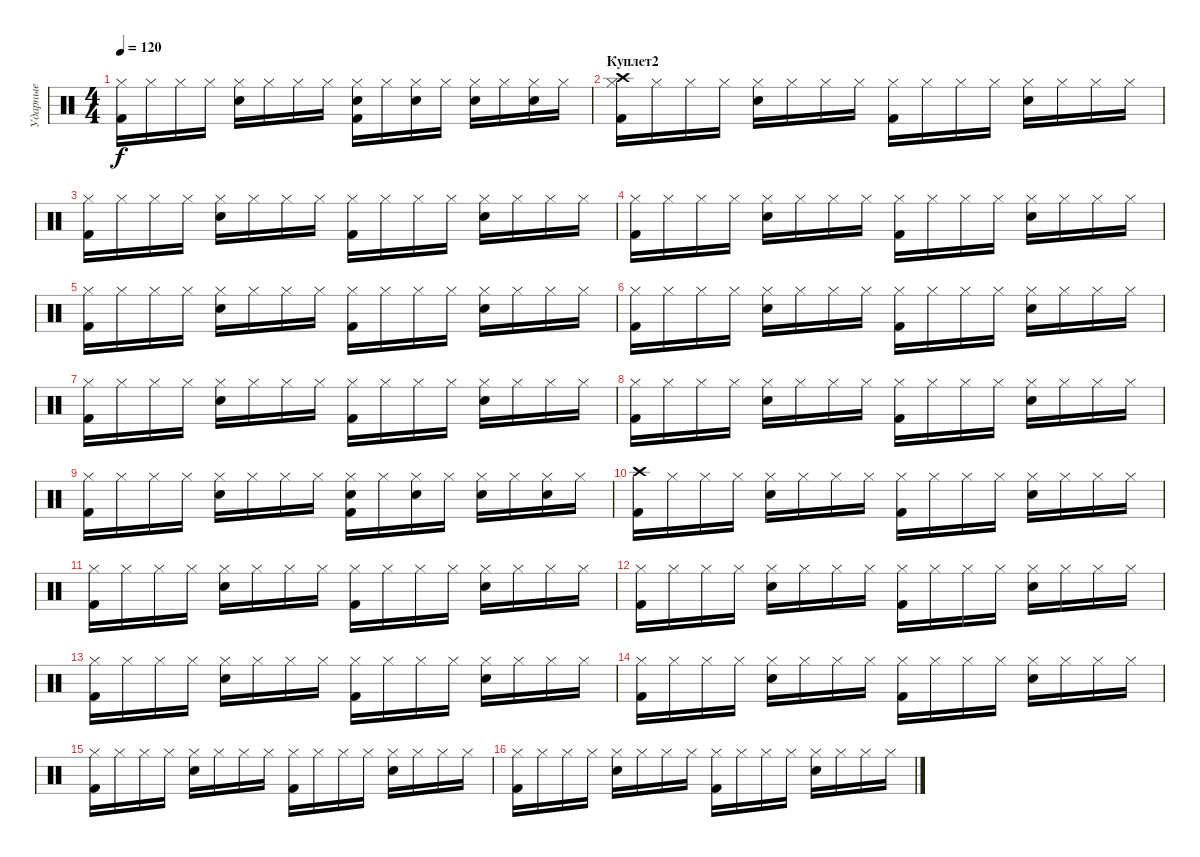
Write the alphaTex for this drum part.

\track ("Ударные" "Ударные") {instrument percussion}
\staff {score}
\articulation defaults
\ts (4 4)
\tempo 120
\clef neutral
\ks c
("Kick (hit) 2" "Hi-Hat (closed)").16{dy f} "Hi-Hat (closed)".16 "Hi-Hat (closed)".16 "Hi-Hat (closed)".16 ("Hi-Hat (closed)" "Snare (hit) 2").16 "Hi-Hat (closed)".16 "Hi-Hat (closed)".16 "Hi-Hat (closed)".16 ("Kick (hit) 2" "Hi-Hat (closed)" "Snare (hit) 2").16 "Hi-Hat (closed)".16 ("Hi-Hat (closed)" "Snare (hit) 2").16 "Hi-Hat (closed)".16 ("Hi-Hat (closed)" "Snare (hit) 2").16 "Hi-Hat (closed)".16 ("Hi-Hat (closed)" "Snare (hit) 2").16 "Hi-Hat (closed)".16 |
\section ("" "Куплет2")
("Kick (hit) 2" "Hi-Hat (closed)" "Crash high (hit)").16 "Hi-Hat (closed)".16 "Hi-Hat (closed)".16 "Hi-Hat (closed)".16 ("Hi-Hat (closed)" "Snare (hit) 2").16 "Hi-Hat (closed)".16 "Hi-Hat (closed)".16 "Hi-Hat (closed)".16 ("Kick (hit) 2" "Hi-Hat (closed)").16 "Hi-Hat (closed)".16 "Hi-Hat (closed)".16 "Hi-Hat (closed)".16 ("Hi-Hat (closed)" "Snare (hit) 2").16 "Hi-Hat (closed)".16 "Hi-Hat (closed)".16 "Hi-Hat (closed)".16 |
("Kick (hit) 2" "Hi-Hat (closed)").16 "Hi-Hat (closed)".16 "Hi-Hat (closed)".16 "Hi-Hat (closed)".16 ("Hi-Hat (closed)" "Snare (hit) 2").16 "Hi-Hat (closed)".16 "Hi-Hat (closed)".16 "Hi-Hat (closed)".16 ("Kick (hit) 2" "Hi-Hat (closed)").16 "Hi-Hat (closed)".16 "Hi-Hat (closed)".16 "Hi-Hat (closed)".16 ("Hi-Hat (closed)" "Snare (hit) 2").16 "Hi-Hat (closed)".16 "Hi-Hat (closed)".16 "Hi-Hat (closed)".16 |
("Kick (hit) 2" "Hi-Hat (closed)").16 "Hi-Hat (closed)".16 "Hi-Hat (closed)".16 "Hi-Hat (closed)".16 ("Hi-Hat (closed)" "Snare (hit) 2").16 "Hi-Hat (closed)".16 "Hi-Hat (closed)".16 "Hi-Hat (closed)".16 ("Kick (hit) 2" "Hi-Hat (closed)").16 "Hi-Hat (closed)".16 "Hi-Hat (closed)".16 "Hi-Hat (closed)".16 ("Hi-Hat (closed)" "Snare (hit) 2").16 "Hi-Hat (closed)".16 "Hi-Hat (closed)".16 "Hi-Hat (closed)".16 |
("Kick (hit) 2" "Hi-Hat (closed)").16 "Hi-Hat (closed)".16 "Hi-Hat (closed)".16 "Hi-Hat (closed)".16 ("Hi-Hat (closed)" "Snare (hit) 2").16 "Hi-Hat (closed)".16 "Hi-Hat (closed)".16 "Hi-Hat (closed)".16 ("Kick (hit) 2" "Hi-Hat (closed)").16 "Hi-Hat (closed)".16 "Hi-Hat (closed)".16 "Hi-Hat (closed)".16 ("Hi-Hat (closed)" "Snare (hit) 2").16 "Hi-Hat (closed)".16 "Hi-Hat (closed)".16 "Hi-Hat (closed)".16 |
("Kick (hit) 2" "Hi-Hat (closed)").16 "Hi-Hat (closed)".16 "Hi-Hat (closed)".16 "Hi-Hat (closed)".16 ("Hi-Hat (closed)" "Snare (hit) 2").16 "Hi-Hat (closed)".16 "Hi-Hat (closed)".16 "Hi-Hat (closed)".16 ("Kick (hit) 2" "Hi-Hat (closed)").16 "Hi-Hat (closed)".16 "Hi-Hat (closed)".16 "Hi-Hat (closed)".16 ("Hi-Hat (closed)" "Snare (hit) 2").16 "Hi-Hat (closed)".16 "Hi-Hat (closed)".16 "Hi-Hat (closed)".16 |
("Kick (hit) 2" "Hi-Hat (closed)").16 "Hi-Hat (closed)".16 "Hi-Hat (closed)".16 "Hi-Hat (closed)".16 ("Hi-Hat (closed)" "Snare (hit) 2").16 "Hi-Hat (closed)".16 "Hi-Hat (closed)".16 "Hi-Hat (closed)".16 ("Kick (hit) 2" "Hi-Hat (closed)").16 "Hi-Hat (closed)".16 "Hi-Hat (closed)".16 "Hi-Hat (closed)".16 ("Hi-Hat (closed)" "Snare (hit) 2").16 "Hi-Hat (closed)".16 "Hi-Hat (closed)".16 "Hi-Hat (closed)".16 |
("Kick (hit) 2" "Hi-Hat (closed)").16 "Hi-Hat (closed)".16 "Hi-Hat (closed)".16 "Hi-Hat (closed)".16 ("Hi-Hat (closed)" "Snare (hit) 2").16 "Hi-Hat (closed)".16 "Hi-Hat (closed)".16 "Hi-Hat (closed)".16 ("Kick (hit) 2" "Hi-Hat (closed)").16 "Hi-Hat (closed)".16 "Hi-Hat (closed)".16 "Hi-Hat (closed)".16 ("Hi-Hat (closed)" "Snare (hit) 2").16 "Hi-Hat (closed)".16 "Hi-Hat (closed)".16 "Hi-Hat (closed)".16 |
("Kick (hit) 2" "Hi-Hat (closed)").16 "Hi-Hat (closed)".16 "Hi-Hat (closed)".16 "Hi-Hat (closed)".16 ("Hi-Hat (closed)" "Snare (hit) 2").16 "Hi-Hat (closed)".16 "Hi-Hat (closed)".16 "Hi-Hat (closed)".16 ("Kick (hit) 2" "Hi-Hat (closed)" "Snare (hit) 2").16 "Hi-Hat (closed)".16 ("Hi-Hat (closed)" "Snare (hit) 2").16 "Hi-Hat (closed)".16 ("Hi-Hat (closed)" "Snare (hit) 2").16 "Hi-Hat (closed)".16 ("Hi-Hat (closed)" "Snare (hit) 2").16 "Hi-Hat (closed)".16 |
("Kick (hit) 2" "Crash high (hit)").16 "Hi-Hat (closed)".16 "Hi-Hat (closed)".16 "Hi-Hat (closed)".16 ("Hi-Hat (closed)" "Snare (hit) 2").16 "Hi-Hat (closed)".16 "Hi-Hat (closed)".16 "Hi-Hat (closed)".16 ("Kick (hit) 2" "Hi-Hat (closed)").16 "Hi-Hat (closed)".16 "Hi-Hat (closed)".16 "Hi-Hat (closed)".16 ("Hi-Hat (closed)" "Snare (hit) 2").16 "Hi-Hat (closed)".16 "Hi-Hat (closed)".16 "Hi-Hat (closed)".16 |
("Kick (hit) 2" "Hi-Hat (closed)").16 "Hi-Hat (closed)".16 "Hi-Hat (closed)".16 "Hi-Hat (closed)".16 ("Hi-Hat (closed)" "Snare (hit) 2").16 "Hi-Hat (closed)".16 "Hi-Hat (closed)".16 "Hi-Hat (closed)".16 ("Kick (hit) 2" "Hi-Hat (closed)").16 "Hi-Hat (closed)".16 "Hi-Hat (closed)".16 "Hi-Hat (closed)".16 ("Hi-Hat (closed)" "Snare (hit) 2").16 "Hi-Hat (closed)".16 "Hi-Hat (closed)".16 "Hi-Hat (closed)".16 |
("Kick (hit) 2" "Hi-Hat (closed)").16 "Hi-Hat (closed)".16 "Hi-Hat (closed)".16 "Hi-Hat (closed)".16 ("Hi-Hat (closed)" "Snare (hit) 2").16 "Hi-Hat (closed)".16 "Hi-Hat (closed)".16 "Hi-Hat (closed)".16 ("Kick (hit) 2" "Hi-Hat (closed)").16 "Hi-Hat (closed)".16 "Hi-Hat (closed)".16 "Hi-Hat (closed)".16 ("Hi-Hat (closed)" "Snare (hit) 2").16 "Hi-Hat (closed)".16 "Hi-Hat (closed)".16 "Hi-Hat (closed)".16 |
("Kick (hit) 2" "Hi-Hat (closed)").16 "Hi-Hat (closed)".16 "Hi-Hat (closed)".16 "Hi-Hat (closed)".16 ("Hi-Hat (closed)" "Snare (hit) 2").16 "Hi-Hat (closed)".16 "Hi-Hat (closed)".16 "Hi-Hat (closed)".16 ("Kick (hit) 2" "Hi-Hat (closed)").16 "Hi-Hat (closed)".16 "Hi-Hat (closed)".16 "Hi-Hat (closed)".16 ("Hi-Hat (closed)" "Snare (hit) 2").16 "Hi-Hat (closed)".16 "Hi-Hat (closed)".16 "Hi-Hat (closed)".16 |
("Kick (hit) 2" "Hi-Hat (closed)").16 "Hi-Hat (closed)".16 "Hi-Hat (closed)".16 "Hi-Hat (closed)".16 ("Hi-Hat (closed)" "Snare (hit) 2").16 "Hi-Hat (closed)".16 "Hi-Hat (closed)".16 "Hi-Hat (closed)".16 ("Kick (hit) 2" "Hi-Hat (closed)").16 "Hi-Hat (closed)".16 "Hi-Hat (closed)".16 "Hi-Hat (closed)".16 ("Hi-Hat (closed)" "Snare (hit) 2").16 "Hi-Hat (closed)".16 "Hi-Hat (closed)".16 "Hi-Hat (closed)".16 |
("Kick (hit) 2" "Hi-Hat (closed)").16 "Hi-Hat (closed)".16 "Hi-Hat (closed)".16 "Hi-Hat (closed)".16 ("Hi-Hat (closed)" "Snare (hit) 2").16 "Hi-Hat (closed)".16 "Hi-Hat (closed)".16 "Hi-Hat (closed)".16 ("Kick (hit) 2" "Hi-Hat (closed)").16 "Hi-Hat (closed)".16 "Hi-Hat (closed)".16 "Hi-Hat (closed)".16 ("Hi-Hat (closed)" "Snare (hit) 2").16 "Hi-Hat (closed)".16 "Hi-Hat (closed)".16 "Hi-Hat (closed)".16 |
("Kick (hit) 2" "Hi-Hat (closed)").16 "Hi-Hat (closed)".16 "Hi-Hat (closed)".16 "Hi-Hat (closed)".16 ("Hi-Hat (closed)" "Snare (hit) 2").16 "Hi-Hat (closed)".16 "Hi-Hat (closed)".16 "Hi-Hat (closed)".16 ("Kick (hit) 2" "Hi-Hat (closed)").16 "Hi-Hat (closed)".16 "Hi-Hat (closed)".16 "Hi-Hat (closed)".16 ("Hi-Hat (closed)" "Snare (hit) 2").16 "Hi-Hat (closed)".16 "Hi-Hat (closed)".16 "Hi-Hat (closed)".16
